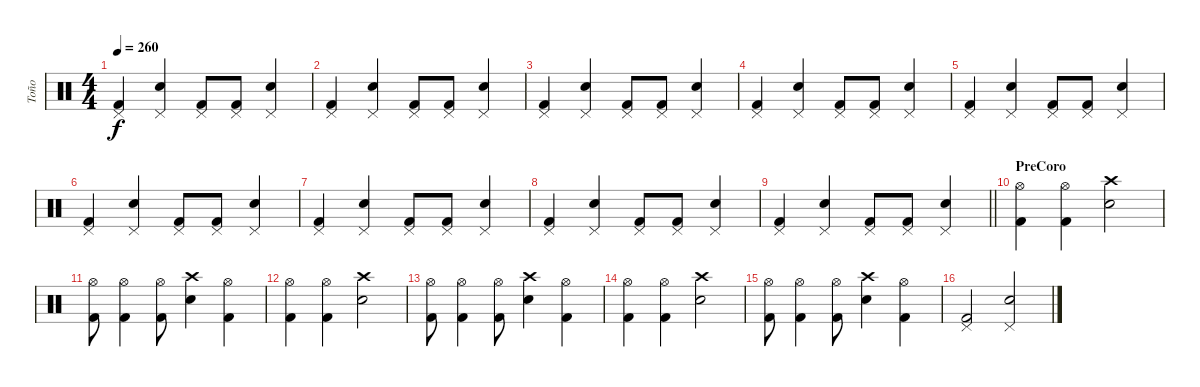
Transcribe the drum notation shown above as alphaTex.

\track ("Toño" "Toño") {instrument percussion}
\staff {score}
\articulation defaults
\ts (4 4)
\tempo 260
\clef neutral
\ks c
("Pedal Hi-Hat (hit)" "Kick (hit) 2").4{dy f} ("Pedal Hi-Hat (hit)" "Electric Snare (hit)").4 ("Pedal Hi-Hat (hit)" "Kick (hit) 2").8 ("Pedal Hi-Hat (hit)" "Kick (hit) 2").8 ("Pedal Hi-Hat (hit)" "Electric Snare (hit)").4 |
("Pedal Hi-Hat (hit)" "Kick (hit) 2").4 ("Pedal Hi-Hat (hit)" "Electric Snare (hit)").4 ("Pedal Hi-Hat (hit)" "Kick (hit) 2").8 ("Pedal Hi-Hat (hit)" "Kick (hit) 2").8 ("Pedal Hi-Hat (hit)" "Electric Snare (hit)").4 |
("Pedal Hi-Hat (hit)" "Kick (hit) 2").4 ("Pedal Hi-Hat (hit)" "Electric Snare (hit)").4 ("Pedal Hi-Hat (hit)" "Kick (hit) 2").8 ("Pedal Hi-Hat (hit)" "Kick (hit) 2").8 ("Pedal Hi-Hat (hit)" "Electric Snare (hit)").4 |
("Pedal Hi-Hat (hit)" "Kick (hit) 2").4 ("Pedal Hi-Hat (hit)" "Electric Snare (hit)").4 ("Pedal Hi-Hat (hit)" "Kick (hit) 2").8 ("Pedal Hi-Hat (hit)" "Kick (hit) 2").8 ("Pedal Hi-Hat (hit)" "Electric Snare (hit)").4 |
("Pedal Hi-Hat (hit)" "Kick (hit) 2").4 ("Pedal Hi-Hat (hit)" "Electric Snare (hit)").4 ("Pedal Hi-Hat (hit)" "Kick (hit) 2").8 ("Pedal Hi-Hat (hit)" "Kick (hit) 2").8 ("Pedal Hi-Hat (hit)" "Electric Snare (hit)").4 |
("Pedal Hi-Hat (hit)" "Kick (hit) 2").4 ("Pedal Hi-Hat (hit)" "Electric Snare (hit)").4 ("Pedal Hi-Hat (hit)" "Kick (hit) 2").8 ("Pedal Hi-Hat (hit)" "Kick (hit) 2").8 ("Pedal Hi-Hat (hit)" "Electric Snare (hit)").4 |
("Pedal Hi-Hat (hit)" "Kick (hit) 2").4 ("Pedal Hi-Hat (hit)" "Electric Snare (hit)").4 ("Pedal Hi-Hat (hit)" "Kick (hit) 2").8 ("Pedal Hi-Hat (hit)" "Kick (hit) 2").8 ("Pedal Hi-Hat (hit)" "Electric Snare (hit)").4 |
("Pedal Hi-Hat (hit)" "Kick (hit) 2").4 ("Pedal Hi-Hat (hit)" "Electric Snare (hit)").4 ("Pedal Hi-Hat (hit)" "Kick (hit) 2").8 ("Pedal Hi-Hat (hit)" "Kick (hit) 2").8 ("Pedal Hi-Hat (hit)" "Electric Snare (hit)").4 |
\barLineRight lightlight
("Pedal Hi-Hat (hit)" "Kick (hit) 2").4 ("Pedal Hi-Hat (hit)" "Electric Snare (hit)").4 ("Pedal Hi-Hat (hit)" "Kick (hit) 2").8 ("Pedal Hi-Hat (hit)" "Kick (hit) 2").8 ("Pedal Hi-Hat (hit)" "Electric Snare (hit)").4 |
\section ("" "PreCoro")
("Hi-Hat (open)" "Kick (hit) 2").4 ("Hi-Hat (open)" "Kick (hit) 2").4 ("Crash high (hit)" "Electric Snare (hit)").2 |
("Hi-Hat (open)" "Kick (hit) 2").8 ("Hi-Hat (open)" "Kick (hit) 2").4 ("Hi-Hat (open)" "Kick (hit) 2").8 ("Crash high (hit)" "Electric Snare (hit)").4 ("Hi-Hat (open)" "Kick (hit) 2").4 |
("Hi-Hat (open)" "Kick (hit) 2").4 ("Hi-Hat (open)" "Kick (hit) 2").4 ("Crash high (hit)" "Electric Snare (hit)").2 |
("Hi-Hat (open)" "Kick (hit) 2").8 ("Hi-Hat (open)" "Kick (hit) 2").4 ("Hi-Hat (open)" "Kick (hit) 2").8 ("Crash high (hit)" "Electric Snare (hit)").4 ("Hi-Hat (open)" "Kick (hit) 2").4 |
("Hi-Hat (open)" "Kick (hit) 2").4 ("Hi-Hat (open)" "Kick (hit) 2").4 ("Crash high (hit)" "Electric Snare (hit)").2 |
("Hi-Hat (open)" "Kick (hit) 2").8 ("Hi-Hat (open)" "Kick (hit) 2").4 ("Hi-Hat (open)" "Kick (hit) 2").8 ("Crash high (hit)" "Electric Snare (hit)").4 ("Hi-Hat (open)" "Kick (hit) 2").4 |
("Pedal Hi-Hat (hit)" "Kick (hit) 2").2 ("Pedal Hi-Hat (hit)" "Electric Snare (hit)").2
